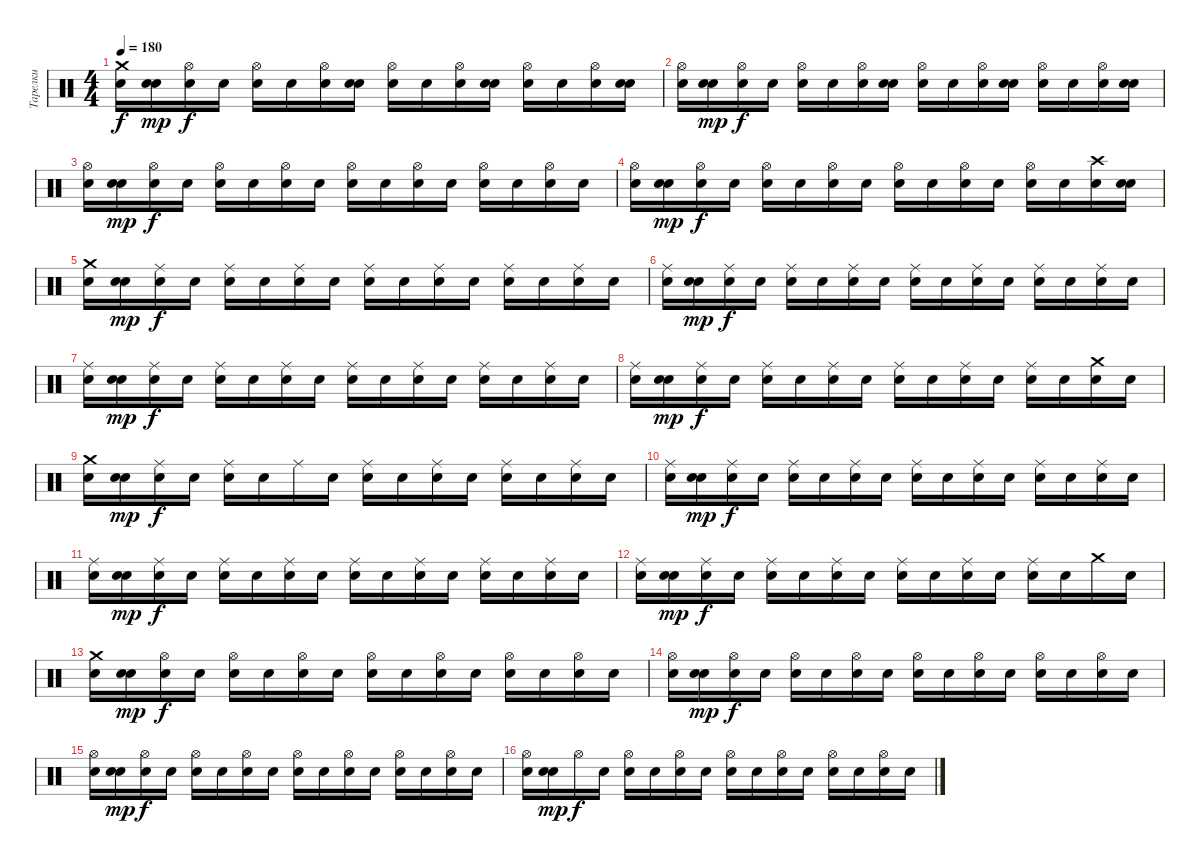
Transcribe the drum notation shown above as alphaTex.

\track ("Тарелки" "Тарелки") {instrument percussion}
\staff {score}
\articulation defaults
\ts (4 4)
\tempo 180
\clef neutral
\ks c
("Crash medium (hit)" "Snare (hit)").16{dy f} ("Snare (hit)" "Snare (hit)").16{dy mp} ("Hi-Hat (open)" "Snare (hit)").16{dy f} "Snare (hit)".16 ("Hi-Hat (open)" "Snare (hit)").16 "Snare (hit)".16 ("Hi-Hat (open)" "Snare (hit)").16 ("Snare (hit)" "Snare (hit)").16 ("Hi-Hat (open)" "Snare (hit)").16 "Snare (hit)".16 ("Hi-Hat (open)" "Snare (hit)").16 ("Snare (hit)" "Snare (hit)").16 ("Hi-Hat (open)" "Snare (hit)").16 "Snare (hit)".16 ("Hi-Hat (open)" "Snare (hit)").16 ("Snare (hit)" "Snare (hit)").16 |
("Hi-Hat (open)" "Snare (hit)").16 ("Snare (hit)" "Snare (hit)").16{dy mp} ("Hi-Hat (open)" "Snare (hit)").16{dy f} "Snare (hit)".16 ("Hi-Hat (open)" "Snare (hit)").16 "Snare (hit)".16 ("Hi-Hat (open)" "Snare (hit)").16 ("Snare (hit)" "Snare (hit)").16 ("Hi-Hat (open)" "Snare (hit)").16 "Snare (hit)".16 ("Hi-Hat (open)" "Snare (hit)").16 ("Snare (hit)" "Snare (hit)").16 ("Hi-Hat (open)" "Snare (hit)").16 "Snare (hit)".16 ("Hi-Hat (open)" "Snare (hit)").16 ("Snare (hit)" "Snare (hit)").16 |
("Hi-Hat (open)" "Snare (hit)").16 ("Snare (hit)" "Snare (hit)").16{dy mp} ("Hi-Hat (open)" "Snare (hit)").16{dy f} "Snare (hit)".16 ("Hi-Hat (open)" "Snare (hit)").16 "Snare (hit)".16 ("Hi-Hat (open)" "Snare (hit)").16 "Snare (hit)".16 ("Hi-Hat (open)" "Snare (hit)").16 "Snare (hit)".16 ("Hi-Hat (open)" "Snare (hit)").16 "Snare (hit)".16 ("Hi-Hat (open)" "Snare (hit)").16 "Snare (hit)".16 ("Hi-Hat (open)" "Snare (hit)").16 "Snare (hit)".16 |
("Hi-Hat (open)" "Snare (hit)").16 ("Snare (hit)" "Snare (hit)").16{dy mp} ("Hi-Hat (open)" "Snare (hit)").16{dy f} "Snare (hit)".16 ("Hi-Hat (open)" "Snare (hit)").16 "Snare (hit)".16 ("Hi-Hat (open)" "Snare (hit)").16 "Snare (hit)".16 ("Hi-Hat (open)" "Snare (hit)").16 "Snare (hit)".16 ("Hi-Hat (open)" "Snare (hit)").16 "Snare (hit)".16 ("Hi-Hat (open)" "Snare (hit)").16 "Snare (hit)".16 ("Crash high (hit)" "Snare (hit)").16 ("Snare (hit)" "Snare (hit)").16 |
("Crash medium (hit)" "Snare (hit)").16 ("Snare (hit)" "Snare (hit)").16{dy mp} ("Ride (middle)" "Snare (hit)").16{dy f} "Snare (hit)".16 ("Ride (middle)" "Snare (hit)").16 "Snare (hit)".16 ("Ride (middle)" "Snare (hit)").16 "Snare (hit)".16 ("Ride (middle)" "Snare (hit)").16 "Snare (hit)".16 ("Ride (middle)" "Snare (hit)").16 "Snare (hit)".16 ("Ride (middle)" "Snare (hit)").16 "Snare (hit)".16 ("Ride (middle)" "Snare (hit)").16 "Snare (hit)".16 |
("Ride (middle)" "Snare (hit)").16 ("Snare (hit)" "Snare (hit)").16{dy mp} ("Ride (middle)" "Snare (hit)").16{dy f} "Snare (hit)".16 ("Ride (middle)" "Snare (hit)").16 "Snare (hit)".16 ("Ride (middle)" "Snare (hit)").16 "Snare (hit)".16 ("Ride (middle)" "Snare (hit)").16 "Snare (hit)".16 ("Ride (middle)" "Snare (hit)").16 "Snare (hit)".16 ("Ride (middle)" "Snare (hit)").16 "Snare (hit)".16 ("Ride (middle)" "Snare (hit)").16 "Snare (hit)".16 |
("Ride (middle)" "Snare (hit)").16 ("Snare (hit)" "Snare (hit)").16{dy mp} ("Ride (middle)" "Snare (hit)").16{dy f} "Snare (hit)".16 ("Ride (middle)" "Snare (hit)").16 "Snare (hit)".16 ("Ride (middle)" "Snare (hit)").16 "Snare (hit)".16 ("Ride (middle)" "Snare (hit)").16 "Snare (hit)".16 ("Ride (middle)" "Snare (hit)").16 "Snare (hit)".16 ("Ride (middle)" "Snare (hit)").16 "Snare (hit)".16 ("Ride (middle)" "Snare (hit)").16 "Snare (hit)".16 |
("Ride (middle)" "Snare (hit)").16 ("Snare (hit)" "Snare (hit)").16{dy mp} ("Ride (middle)" "Snare (hit)").16{dy f} "Snare (hit)".16 ("Ride (middle)" "Snare (hit)").16 "Snare (hit)".16 ("Ride (middle)" "Snare (hit)").16 "Snare (hit)".16 ("Ride (middle)" "Snare (hit)").16 "Snare (hit)".16 ("Ride (middle)" "Snare (hit)").16 "Snare (hit)".16 ("Ride (middle)" "Snare (hit)").16 "Snare (hit)".16 ("Crash medium (hit)" "Snare (hit)").16 "Snare (hit)".16 |
("Crash medium (hit)" "Snare (hit)").16 ("Snare (hit)" "Snare (hit)").16{dy mp} ("Ride (middle)" "Snare (hit)").16{dy f} "Snare (hit)".16 ("Ride (middle)" "Snare (hit)").16 "Snare (hit)".16 "Ride (middle)".16 "Snare (hit)".16 ("Ride (middle)" "Snare (hit)").16 "Snare (hit)".16 ("Ride (middle)" "Snare (hit)").16 "Snare (hit)".16 ("Ride (middle)" "Snare (hit)").16 "Snare (hit)".16 ("Ride (middle)" "Snare (hit)").16 "Snare (hit)".16 |
("Ride (middle)" "Snare (hit)").16 ("Snare (hit)" "Snare (hit)").16{dy mp} ("Ride (middle)" "Snare (hit)").16{dy f} "Snare (hit)".16 ("Ride (middle)" "Snare (hit)").16 "Snare (hit)".16 ("Ride (middle)" "Snare (hit)").16 "Snare (hit)".16 ("Ride (middle)" "Snare (hit)").16 "Snare (hit)".16 ("Ride (middle)" "Snare (hit)").16 "Snare (hit)".16 ("Ride (middle)" "Snare (hit)").16 "Snare (hit)".16 ("Ride (middle)" "Snare (hit)").16 "Snare (hit)".16 |
("Ride (middle)" "Snare (hit)").16 ("Snare (hit)" "Snare (hit)").16{dy mp} ("Ride (middle)" "Snare (hit)").16{dy f} "Snare (hit)".16 ("Ride (middle)" "Snare (hit)").16 "Snare (hit)".16 ("Ride (middle)" "Snare (hit)").16 "Snare (hit)".16 ("Ride (middle)" "Snare (hit)").16 "Snare (hit)".16 ("Ride (middle)" "Snare (hit)").16 "Snare (hit)".16 ("Ride (middle)" "Snare (hit)").16 "Snare (hit)".16 ("Ride (middle)" "Snare (hit)").16 "Snare (hit)".16 |
("Ride (middle)" "Snare (hit)").16 ("Snare (hit)" "Snare (hit)").16{dy mp} ("Ride (middle)" "Snare (hit)").16{dy f} "Snare (hit)".16 ("Ride (middle)" "Snare (hit)").16 "Snare (hit)".16 ("Ride (middle)" "Snare (hit)").16 "Snare (hit)".16 ("Ride (middle)" "Snare (hit)").16 "Snare (hit)".16 ("Ride (middle)" "Snare (hit)").16 "Snare (hit)".16 ("Ride (middle)" "Snare (hit)").16 "Snare (hit)".16 "Crash medium (hit)".16 "Snare (hit)".16 |
("Crash medium (hit)" "Snare (hit)").16 ("Snare (hit)" "Snare (hit)").16{dy mp} ("Hi-Hat (open)" "Snare (hit)").16{dy f} "Snare (hit)".16 ("Hi-Hat (open)" "Snare (hit)").16 "Snare (hit)".16 ("Hi-Hat (open)" "Snare (hit)").16 "Snare (hit)".16 ("Hi-Hat (open)" "Snare (hit)").16 "Snare (hit)".16 ("Hi-Hat (open)" "Snare (hit)").16 "Snare (hit)".16 ("Hi-Hat (open)" "Snare (hit)").16 "Snare (hit)".16 ("Hi-Hat (open)" "Snare (hit)").16 "Snare (hit)".16 |
("Hi-Hat (open)" "Snare (hit)").16 ("Snare (hit)" "Snare (hit)").16{dy mp} ("Hi-Hat (open)" "Snare (hit)").16{dy f} "Snare (hit)".16 ("Hi-Hat (open)" "Snare (hit)").16 "Snare (hit)".16 ("Hi-Hat (open)" "Snare (hit)").16 "Snare (hit)".16 ("Hi-Hat (open)" "Snare (hit)").16 "Snare (hit)".16 ("Hi-Hat (open)" "Snare (hit)").16 "Snare (hit)".16 ("Hi-Hat (open)" "Snare (hit)").16 "Snare (hit)".16 ("Hi-Hat (open)" "Snare (hit)").16 "Snare (hit)".16 |
("Hi-Hat (open)" "Snare (hit)").16 ("Snare (hit)" "Snare (hit)").16{dy mp} ("Hi-Hat (open)" "Snare (hit)").16{dy f} "Snare (hit)".16 ("Hi-Hat (open)" "Snare (hit)").16 "Snare (hit)".16 ("Hi-Hat (open)" "Snare (hit)").16 "Snare (hit)".16 ("Hi-Hat (open)" "Snare (hit)").16 "Snare (hit)".16 ("Hi-Hat (open)" "Snare (hit)").16 "Snare (hit)".16 ("Hi-Hat (open)" "Snare (hit)").16 "Snare (hit)".16 ("Hi-Hat (open)" "Snare (hit)").16 "Snare (hit)".16 |
("Hi-Hat (open)" "Snare (hit)").16 ("Snare (hit)" "Snare (hit)").16{dy mp} "Hi-Hat (open)".16{dy f} "Snare (hit)".16 ("Hi-Hat (open)" "Snare (hit)").16 "Snare (hit)".16 ("Hi-Hat (open)" "Snare (hit)").16 "Snare (hit)".16 ("Hi-Hat (open)" "Snare (hit)").16 "Snare (hit)".16 ("Hi-Hat (open)" "Snare (hit)").16 "Snare (hit)".16 ("Hi-Hat (open)" "Snare (hit)").16 "Snare (hit)".16 ("Hi-Hat (open)" "Snare (hit)").16 "Snare (hit)".16
